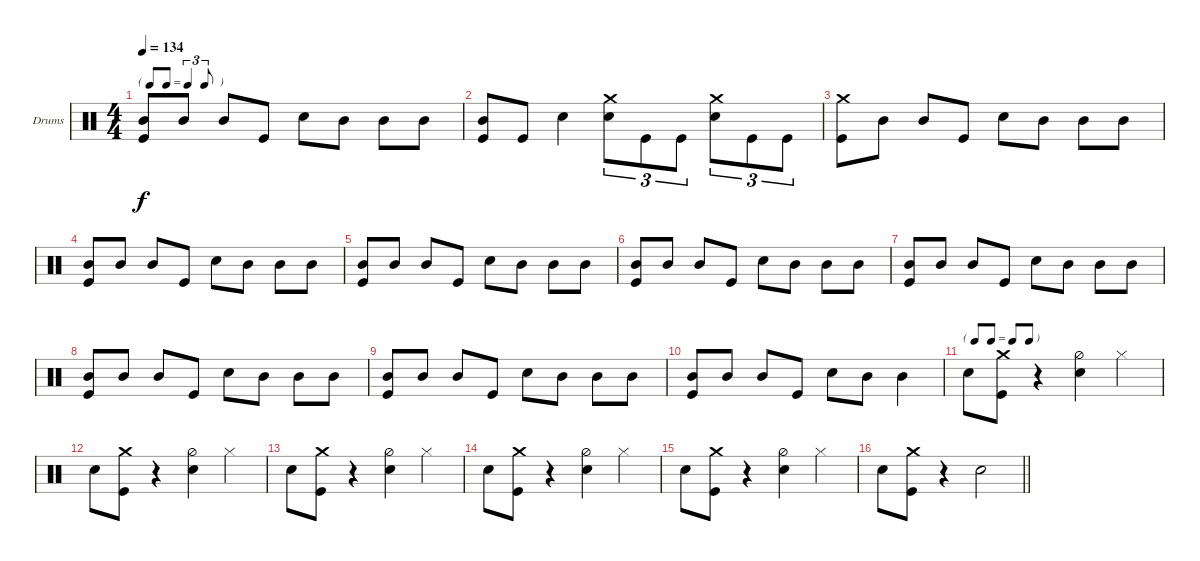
\defaultSystemsLayout 4
\bracketExtendMode groupsimilarinstruments
\firstSystemTrackNameOrientation horizontal
\otherSystemsTrackNameOrientation horizontal
\track ("Drumkit" "Drums") {instrument percussion}
\staff {score}
\articulation defaults
\ts (4 4)
\tf triplet8th
\tempo 134
\clef neutral
\ks c
("Kick (hit)" "Mid Tom (hit)").8{dy f} "Mid Tom (hit)".8 "Mid Tom (hit)".8 "Kick (hit)".8 "Snare (hit) 2".8 "Mid Tom (hit)".8 "Mid Tom (hit)".8 "Mid Tom (hit)".8 |
("Kick (hit)" "Mid Tom (hit)").8 "Kick (hit)".8 "Snare (hit) 2".4 ("Snare (hit) 2" "Crash medium (hit)").8{tu (3 2)} "Kick (hit)".8{tu (3 2)} "Kick (hit)".8{tu (3 2)} ("Snare (hit) 2" "Crash medium (hit)").8{tu (3 2)} "Kick (hit)".8{tu (3 2)} "Kick (hit)".8{tu (3 2)} |
("Kick (hit)" "Crash medium (hit)").8 "Mid Tom (hit)".8 "Mid Tom (hit)".8 "Kick (hit)".8 "Snare (hit) 2".8 "Mid Tom (hit)".8 "Mid Tom (hit)".8 "Mid Tom (hit)".8 |
("Kick (hit)" "Mid Tom (hit)").8 "Mid Tom (hit)".8 "Mid Tom (hit)".8 "Kick (hit)".8 "Snare (hit) 2".8 "Mid Tom (hit)".8 "Mid Tom (hit)".8 "Mid Tom (hit)".8 |
("Kick (hit)" "Mid Tom (hit)").8 "Mid Tom (hit)".8 "Mid Tom (hit)".8 "Kick (hit)".8 "Snare (hit) 2".8 "Mid Tom (hit)".8 "Mid Tom (hit)".8 "Mid Tom (hit)".8 |
("Kick (hit)" "Mid Tom (hit)").8 "Mid Tom (hit)".8 "Mid Tom (hit)".8 "Kick (hit)".8 "Snare (hit) 2".8 "Mid Tom (hit)".8 "Mid Tom (hit)".8 "Mid Tom (hit)".8 |
("Kick (hit)" "Mid Tom (hit)").8 "Mid Tom (hit)".8 "Mid Tom (hit)".8 "Kick (hit)".8 "Snare (hit) 2".8 "Mid Tom (hit)".8 "Mid Tom (hit)".8 "Mid Tom (hit)".8 |
("Kick (hit)" "Mid Tom (hit)").8 "Mid Tom (hit)".8 "Mid Tom (hit)".8 "Kick (hit)".8 "Snare (hit) 2".8 "Mid Tom (hit)".8 "Mid Tom (hit)".8 "Mid Tom (hit)".8 |
("Kick (hit)" "Mid Tom (hit)").8 "Mid Tom (hit)".8 "Mid Tom (hit)".8 "Kick (hit)".8 "Snare (hit) 2".8 "Mid Tom (hit)".8 "Mid Tom (hit)".8 "Mid Tom (hit)".8 |
("Kick (hit)" "Mid Tom (hit)").8 "Mid Tom (hit)".8 "Mid Tom (hit)".8 "Kick (hit)".8 "Snare (hit) 2".8 "Mid Tom (hit)".8 "Mid Tom (hit)".4 |
\tf none "Snare (hit) 2".8
("Kick (hit)" "Crash medium (hit)").8 r.4 ("Snare (hit) 2" "Hi-Hat (half)").4 "Hi-Hat (closed)".4 |
"Snare (hit) 2".8 ("Kick (hit)" "Crash medium (hit)").8 r.4 ("Snare (hit) 2" "Hi-Hat (half)").4 "Hi-Hat (closed)".4 |
"Snare (hit) 2".8 ("Kick (hit)" "Crash medium (hit)").8 r.4 ("Snare (hit) 2" "Hi-Hat (half)").4 "Hi-Hat (closed)".4 |
"Snare (hit) 2".8 ("Kick (hit)" "Crash medium (hit)").8 r.4 ("Snare (hit) 2" "Hi-Hat (half)").4 "Hi-Hat (closed)".4 |
"Snare (hit) 2".8 ("Kick (hit)" "Crash medium (hit)").8 r.4 ("Snare (hit) 2" "Hi-Hat (half)").4 "Hi-Hat (closed)".4 |
\barLineRight lightlight "Snare (hit) 2".8
("Kick (hit)" "Crash medium (hit)").8 r.4 "Snare (hit) 2".2
